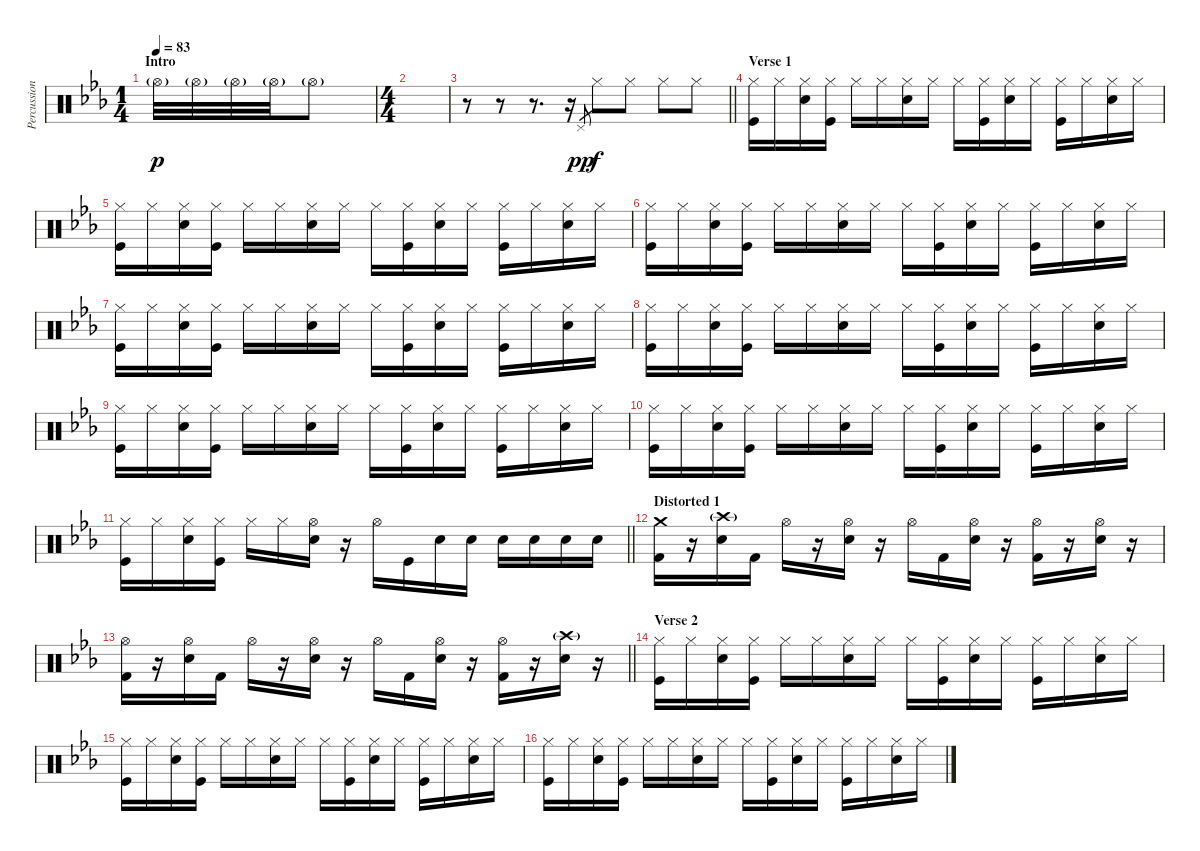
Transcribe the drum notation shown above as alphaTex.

\track ("Percussion" "Percussion") {instrument percussion}
\staff {score}
\articulation defaults
\ts (1 4)
\section ("" "Intro")
\tempo 83
\clef neutral
\ks cminor "Hi-Hat (open)"{g}.32{dy p} "Hi-Hat (open)"{g}.32 "Hi-Hat (open)"{g}.32 "Hi-Hat (open)"{g}.32 "Hi-Hat (open)"{g}.8
|
\ts (4 4)
|
\barLineRight lightlight
r.8 r.8 r.8{d} r.16 "Pedal Hi-Hat (hit)".8{gr dy pp} "Hi-Hat (closed)".8{dy f} "Hi-Hat (closed)".8 "Hi-Hat (closed)".8 "Hi-Hat (closed)".8 |
\section ("" "Verse 1")
("Hi-Hat (closed)" "Kick (hit)").16 "Hi-Hat (closed)".16 ("Hi-Hat (closed)" "Electric Snare (hit)").16 ("Hi-Hat (closed)" "Kick (hit)").16 "Hi-Hat (closed)".16 "Hi-Hat (closed)".16 ("Hi-Hat (closed)" "Electric Snare (hit)").16 "Hi-Hat (closed)".16 "Hi-Hat (closed)".16 ("Hi-Hat (closed)" "Kick (hit)").16 ("Hi-Hat (closed)" "Electric Snare (hit)").16 "Hi-Hat (closed)".16 ("Hi-Hat (closed)" "Kick (hit)").16 "Hi-Hat (closed)".16 ("Hi-Hat (closed)" "Electric Snare (hit)").16 "Hi-Hat (closed)".16 |
("Hi-Hat (closed)" "Kick (hit)").16 "Hi-Hat (closed)".16 ("Hi-Hat (closed)" "Electric Snare (hit)").16 ("Hi-Hat (closed)" "Kick (hit)").16 "Hi-Hat (closed)".16 "Hi-Hat (closed)".16 ("Hi-Hat (closed)" "Electric Snare (hit)").16 "Hi-Hat (closed)".16 "Hi-Hat (closed)".16 ("Hi-Hat (closed)" "Kick (hit)").16 ("Hi-Hat (closed)" "Electric Snare (hit)").16 "Hi-Hat (closed)".16 ("Hi-Hat (closed)" "Kick (hit)").16 "Hi-Hat (closed)".16 ("Hi-Hat (closed)" "Electric Snare (hit)").16 "Hi-Hat (closed)".16 |
("Hi-Hat (closed)" "Kick (hit)").16 "Hi-Hat (closed)".16 ("Hi-Hat (closed)" "Electric Snare (hit)").16 ("Hi-Hat (closed)" "Kick (hit)").16 "Hi-Hat (closed)".16 "Hi-Hat (closed)".16 ("Hi-Hat (closed)" "Electric Snare (hit)").16 "Hi-Hat (closed)".16 "Hi-Hat (closed)".16 ("Hi-Hat (closed)" "Kick (hit)").16 ("Hi-Hat (closed)" "Electric Snare (hit)").16 "Hi-Hat (closed)".16 ("Hi-Hat (closed)" "Kick (hit)").16 "Hi-Hat (closed)".16 ("Hi-Hat (closed)" "Electric Snare (hit)").16 "Hi-Hat (closed)".16 |
("Hi-Hat (closed)" "Kick (hit)").16 "Hi-Hat (closed)".16 ("Hi-Hat (closed)" "Electric Snare (hit)").16 ("Hi-Hat (closed)" "Kick (hit)").16 "Hi-Hat (closed)".16 "Hi-Hat (closed)".16 ("Hi-Hat (closed)" "Electric Snare (hit)").16 "Hi-Hat (closed)".16 "Hi-Hat (closed)".16 ("Hi-Hat (closed)" "Kick (hit)").16 ("Hi-Hat (closed)" "Electric Snare (hit)").16 "Hi-Hat (closed)".16 ("Hi-Hat (closed)" "Kick (hit)").16 "Hi-Hat (closed)".16 ("Hi-Hat (closed)" "Electric Snare (hit)").16 "Hi-Hat (closed)".16 |
("Hi-Hat (closed)" "Kick (hit)").16 "Hi-Hat (closed)".16 ("Hi-Hat (closed)" "Electric Snare (hit)").16 ("Hi-Hat (closed)" "Kick (hit)").16 "Hi-Hat (closed)".16 "Hi-Hat (closed)".16 ("Hi-Hat (closed)" "Electric Snare (hit)").16 "Hi-Hat (closed)".16 "Hi-Hat (closed)".16 ("Hi-Hat (closed)" "Kick (hit)").16 ("Hi-Hat (closed)" "Electric Snare (hit)").16 "Hi-Hat (closed)".16 ("Hi-Hat (closed)" "Kick (hit)").16 "Hi-Hat (closed)".16 ("Hi-Hat (closed)" "Electric Snare (hit)").16 "Hi-Hat (closed)".16 |
("Hi-Hat (closed)" "Kick (hit)").16 "Hi-Hat (closed)".16 ("Hi-Hat (closed)" "Electric Snare (hit)").16 ("Hi-Hat (closed)" "Kick (hit)").16 "Hi-Hat (closed)".16 "Hi-Hat (closed)".16 ("Hi-Hat (closed)" "Electric Snare (hit)").16 "Hi-Hat (closed)".16 "Hi-Hat (closed)".16 ("Hi-Hat (closed)" "Kick (hit)").16 ("Hi-Hat (closed)" "Electric Snare (hit)").16 "Hi-Hat (closed)".16 ("Hi-Hat (closed)" "Kick (hit)").16 "Hi-Hat (closed)".16 ("Hi-Hat (closed)" "Electric Snare (hit)").16 "Hi-Hat (closed)".16 |
("Hi-Hat (closed)" "Kick (hit)").16 "Hi-Hat (closed)".16 ("Hi-Hat (closed)" "Electric Snare (hit)").16 ("Hi-Hat (closed)" "Kick (hit)").16 "Hi-Hat (closed)".16 "Hi-Hat (closed)".16 ("Hi-Hat (closed)" "Electric Snare (hit)").16 "Hi-Hat (closed)".16 "Hi-Hat (closed)".16 ("Hi-Hat (closed)" "Kick (hit)").16 ("Hi-Hat (closed)" "Electric Snare (hit)").16 "Hi-Hat (closed)".16 ("Hi-Hat (closed)" "Kick (hit)").16 "Hi-Hat (closed)".16 ("Hi-Hat (closed)" "Electric Snare (hit)").16 "Hi-Hat (closed)".16 |
\barLineRight lightlight
("Hi-Hat (closed)" "Kick (hit)").16 "Hi-Hat (closed)".16 ("Hi-Hat (closed)" "Electric Snare (hit)").16 ("Hi-Hat (closed)" "Kick (hit)").16 "Hi-Hat (closed)".16 "Hi-Hat (closed)".16 ("Hi-Hat (open)" "Electric Snare (hit)").16 r.16 "Hi-Hat (open)".16 "Kick (hit)".16 "Electric Snare (hit)".16 "Electric Snare (hit)".16 "Electric Snare (hit)".16 "Electric Snare (hit)".16 "Electric Snare (hit)".16 "Electric Snare (hit)".16 |
\section ("" "Distorted 1")
("Crash medium (hit)" "Kick (hit) 2").16 r.16 ("Crash high (hit)"{g} "Electric Snare (hit)").16 "Kick (hit) 2".16 "Hi-Hat (open)".16 r.16 ("Hi-Hat (open)" "Electric Snare (hit)").16 r.16 "Hi-Hat (open)".16 "Kick (hit) 2".16 ("Hi-Hat (open)" "Electric Snare (hit)").16 r.16 ("Hi-Hat (open)" "Kick (hit) 2").16 r.16 ("Hi-Hat (open)" "Electric Snare (hit)").16 r.16 |
\barLineRight lightlight
("Hi-Hat (open)" "Kick (hit) 2").16 r.16 ("Hi-Hat (open)" "Electric Snare (hit)").16 "Kick (hit) 2".16 "Hi-Hat (open)".16 r.16 ("Hi-Hat (open)" "Electric Snare (hit)").16 r.16 "Hi-Hat (open)".16 "Kick (hit) 2".16 ("Hi-Hat (open)" "Electric Snare (hit)").16 r.16 ("Hi-Hat (open)" "Kick (hit) 2").16 r.16 ("Crash high (hit)"{g} "Electric Snare (hit)").16 r.16 |
\section ("" "Verse 2")
("Hi-Hat (closed)" "Kick (hit)").16 "Hi-Hat (closed)".16 ("Hi-Hat (closed)" "Electric Snare (hit)").16 ("Hi-Hat (closed)" "Kick (hit)").16 "Hi-Hat (closed)".16 "Hi-Hat (closed)".16 ("Hi-Hat (closed)" "Electric Snare (hit)").16 "Hi-Hat (closed)".16 "Hi-Hat (closed)".16 ("Hi-Hat (closed)" "Kick (hit)").16 ("Hi-Hat (closed)" "Electric Snare (hit)").16 "Hi-Hat (closed)".16 ("Hi-Hat (closed)" "Kick (hit)").16 "Hi-Hat (closed)".16 ("Hi-Hat (closed)" "Electric Snare (hit)").16 "Hi-Hat (closed)".16 |
("Hi-Hat (closed)" "Kick (hit)").16 "Hi-Hat (closed)".16 ("Hi-Hat (closed)" "Electric Snare (hit)").16 ("Hi-Hat (closed)" "Kick (hit)").16 "Hi-Hat (closed)".16 "Hi-Hat (closed)".16 ("Hi-Hat (closed)" "Electric Snare (hit)").16 "Hi-Hat (closed)".16 "Hi-Hat (closed)".16 ("Hi-Hat (closed)" "Kick (hit)").16 ("Hi-Hat (closed)" "Electric Snare (hit)").16 "Hi-Hat (closed)".16 ("Hi-Hat (closed)" "Kick (hit)").16 "Hi-Hat (closed)".16 ("Hi-Hat (closed)" "Electric Snare (hit)").16 "Hi-Hat (closed)".16 |
("Hi-Hat (closed)" "Kick (hit)").16 "Hi-Hat (closed)".16 ("Hi-Hat (closed)" "Electric Snare (hit)").16 ("Hi-Hat (closed)" "Kick (hit)").16 "Hi-Hat (closed)".16 "Hi-Hat (closed)".16 ("Hi-Hat (closed)" "Electric Snare (hit)").16 "Hi-Hat (closed)".16 "Hi-Hat (closed)".16 ("Hi-Hat (closed)" "Kick (hit)").16 ("Hi-Hat (closed)" "Electric Snare (hit)").16 "Hi-Hat (closed)".16 ("Hi-Hat (closed)" "Kick (hit)").16 "Hi-Hat (closed)".16 ("Hi-Hat (closed)" "Electric Snare (hit)").16 "Hi-Hat (closed)".16
